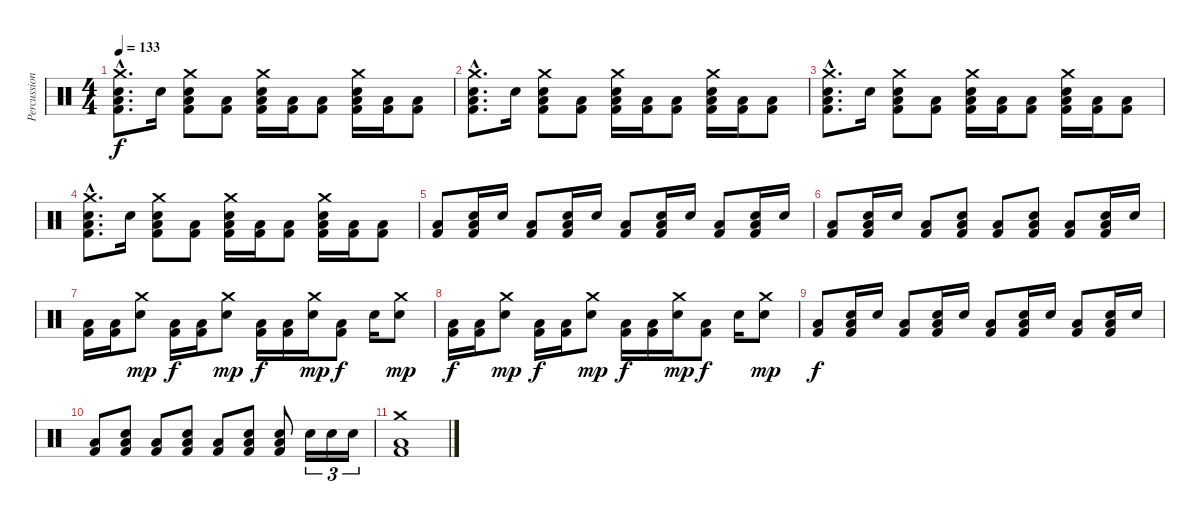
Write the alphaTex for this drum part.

\track ("Percussions" "Percussion") {instrument percussion}
\staff {score}
\articulation defaults
\ts (4 4)
\tempo 133
\clef neutral
\ks c
("Kick (hit) 2"{hac} "Low Floor Tom (hit)"{hac} "Electric Snare (hit)"{hac} "Crash medium (hit)"{hac}).8{d dy f} "Electric Snare (hit)".16 ("Kick (hit) 2" "Low Floor Tom (hit)" "Electric Snare (hit)" "Crash medium (hit)").8 ("Kick (hit) 2" "Low Floor Tom (hit)").8 ("Kick (hit) 2" "Low Floor Tom (hit)" "Electric Snare (hit)" "Crash medium (hit)").16 ("Kick (hit) 2" "Low Floor Tom (hit)").16 ("Kick (hit) 2" "Low Floor Tom (hit)").8 ("Kick (hit) 2" "Low Floor Tom (hit)" "Electric Snare (hit)" "Crash medium (hit)").16 ("Kick (hit) 2" "Low Floor Tom (hit)").16 ("Kick (hit) 2" "Low Floor Tom (hit)").8 |
("Kick (hit) 2"{hac} "Low Floor Tom (hit)"{hac} "Electric Snare (hit)"{hac} "Crash medium (hit)"{hac}).8{d} "Electric Snare (hit)".16 ("Kick (hit) 2" "Low Floor Tom (hit)" "Electric Snare (hit)" "Crash medium (hit)").8 ("Kick (hit) 2" "Low Floor Tom (hit)").8 ("Kick (hit) 2" "Low Floor Tom (hit)" "Electric Snare (hit)" "Crash medium (hit)").16 ("Kick (hit) 2" "Low Floor Tom (hit)").16 ("Kick (hit) 2" "Low Floor Tom (hit)").8 ("Kick (hit) 2" "Low Floor Tom (hit)" "Electric Snare (hit)" "Crash medium (hit)").16 ("Kick (hit) 2" "Low Floor Tom (hit)").16 ("Kick (hit) 2" "Low Floor Tom (hit)").8 |
("Kick (hit) 2"{hac} "Low Floor Tom (hit)"{hac} "Electric Snare (hit)"{hac} "Crash medium (hit)"{hac}).8{d} "Electric Snare (hit)".16 ("Kick (hit) 2" "Low Floor Tom (hit)" "Electric Snare (hit)" "Crash medium (hit)").8 ("Kick (hit) 2" "Low Floor Tom (hit)").8 ("Kick (hit) 2" "Low Floor Tom (hit)" "Electric Snare (hit)" "Crash medium (hit)").16 ("Kick (hit) 2" "Low Floor Tom (hit)").16 ("Kick (hit) 2" "Low Floor Tom (hit)").8 ("Kick (hit) 2" "Low Floor Tom (hit)" "Electric Snare (hit)" "Crash medium (hit)").16 ("Kick (hit) 2" "Low Floor Tom (hit)").16 ("Kick (hit) 2" "Low Floor Tom (hit)").8 |
("Kick (hit) 2"{hac} "Low Floor Tom (hit)"{hac} "Electric Snare (hit)"{hac} "Crash medium (hit)"{hac}).8{d} "Electric Snare (hit)".16 ("Kick (hit) 2" "Low Floor Tom (hit)" "Electric Snare (hit)" "Crash medium (hit)").8 ("Kick (hit) 2" "Low Floor Tom (hit)").8 ("Kick (hit) 2" "Low Floor Tom (hit)" "Electric Snare (hit)" "Crash medium (hit)").16 ("Kick (hit) 2" "Low Floor Tom (hit)").16 ("Kick (hit) 2" "Low Floor Tom (hit)").8 ("Kick (hit) 2" "Low Floor Tom (hit)" "Electric Snare (hit)" "Crash medium (hit)").16 ("Kick (hit) 2" "Low Floor Tom (hit)").16 ("Kick (hit) 2" "Low Floor Tom (hit)").8 |
("Kick (hit) 2" "Low Floor Tom (hit)").8 ("Kick (hit) 2" "Low Floor Tom (hit)" "Electric Snare (hit)").16 "Electric Snare (hit)".16 ("Kick (hit) 2" "Low Floor Tom (hit)").8 ("Kick (hit) 2" "Low Floor Tom (hit)" "Electric Snare (hit)").16 "Electric Snare (hit)".16 ("Kick (hit) 2" "Low Floor Tom (hit)").8 ("Kick (hit) 2" "Low Floor Tom (hit)" "Electric Snare (hit)").16 "Electric Snare (hit)".16 ("Kick (hit) 2" "Low Floor Tom (hit)").8 ("Kick (hit) 2" "Low Floor Tom (hit)" "Electric Snare (hit)").16 "Electric Snare (hit)".16 |
("Kick (hit) 2" "Low Floor Tom (hit)").8 ("Kick (hit) 2" "Low Floor Tom (hit)" "Electric Snare (hit)").16 "Electric Snare (hit)".16 ("Kick (hit) 2" "Low Floor Tom (hit)").8 ("Kick (hit) 2" "Low Floor Tom (hit)" "Electric Snare (hit)").8 ("Kick (hit) 2" "Low Floor Tom (hit)").8 ("Kick (hit) 2" "Low Floor Tom (hit)" "Electric Snare (hit)").8 ("Kick (hit) 2" "Low Floor Tom (hit)").8 ("Kick (hit) 2" "Low Floor Tom (hit)" "Electric Snare (hit)").16 "Electric Snare (hit)".16 |
("Kick (hit) 2" "Low Floor Tom (hit)").16 ("Kick (hit) 2" "Low Floor Tom (hit)").16 ("Electric Snare (hit)" "Crash medium (hit)").8{dy mp} ("Kick (hit) 2" "Low Floor Tom (hit)").16{dy f} ("Kick (hit) 2" "Low Floor Tom (hit)").16 ("Electric Snare (hit)" "Crash medium (hit)").8{dy mp} ("Kick (hit) 2" "Low Floor Tom (hit)").16{dy f} ("Kick (hit) 2" "Low Floor Tom (hit)").16 ("Electric Snare (hit)" "Crash medium (hit)").16{dy mp} ("Kick (hit) 2" "Low Floor Tom (hit)").8{dy f} "Electric Snare (hit)".16 ("Electric Snare (hit)" "Crash medium (hit)").8{dy mp} |
("Kick (hit) 2" "Low Floor Tom (hit)").16{dy f} ("Kick (hit) 2" "Low Floor Tom (hit)").16 ("Electric Snare (hit)" "Crash medium (hit)").8{dy mp} ("Kick (hit) 2" "Low Floor Tom (hit)").16{dy f} ("Kick (hit) 2" "Low Floor Tom (hit)").16 ("Electric Snare (hit)" "Crash medium (hit)").8{dy mp} ("Kick (hit) 2" "Low Floor Tom (hit)").16{dy f} ("Kick (hit) 2" "Low Floor Tom (hit)").16 ("Electric Snare (hit)" "Crash medium (hit)").16{dy mp} ("Kick (hit) 2" "Low Floor Tom (hit)").8{dy f} "Electric Snare (hit)".16 ("Electric Snare (hit)" "Crash medium (hit)").8{dy mp} |
("Kick (hit) 2" "Low Floor Tom (hit)").8{dy f} ("Kick (hit) 2" "Low Floor Tom (hit)" "Electric Snare (hit)").16 "Electric Snare (hit)".16 ("Kick (hit) 2" "Low Floor Tom (hit)").8 ("Kick (hit) 2" "Low Floor Tom (hit)" "Electric Snare (hit)").16 "Electric Snare (hit)".16 ("Kick (hit) 2" "Low Floor Tom (hit)").8 ("Kick (hit) 2" "Low Floor Tom (hit)" "Electric Snare (hit)").16 "Electric Snare (hit)".16 ("Kick (hit) 2" "Low Floor Tom (hit)").8 ("Kick (hit) 2" "Low Floor Tom (hit)" "Electric Snare (hit)").16 "Electric Snare (hit)".16 |
("Kick (hit) 2" "Low Floor Tom (hit)").8 ("Kick (hit) 2" "Low Floor Tom (hit)" "Electric Snare (hit)").8 ("Kick (hit) 2" "Low Floor Tom (hit)").8 ("Kick (hit) 2" "Low Floor Tom (hit)" "Electric Snare (hit)").8 ("Kick (hit) 2" "Low Floor Tom (hit)").8 ("Kick (hit) 2" "Low Floor Tom (hit)" "Electric Snare (hit)").8 ("Kick (hit) 2" "Low Floor Tom (hit)" "Electric Snare (hit)").8 "Electric Snare (hit)".16{tu (3 2)} "Electric Snare (hit)".16{tu (3 2)} "Electric Snare (hit)".16{tu (3 2)} |
("Kick (hit) 2" "Low Floor Tom (hit)" "Crash medium (hit)").1
